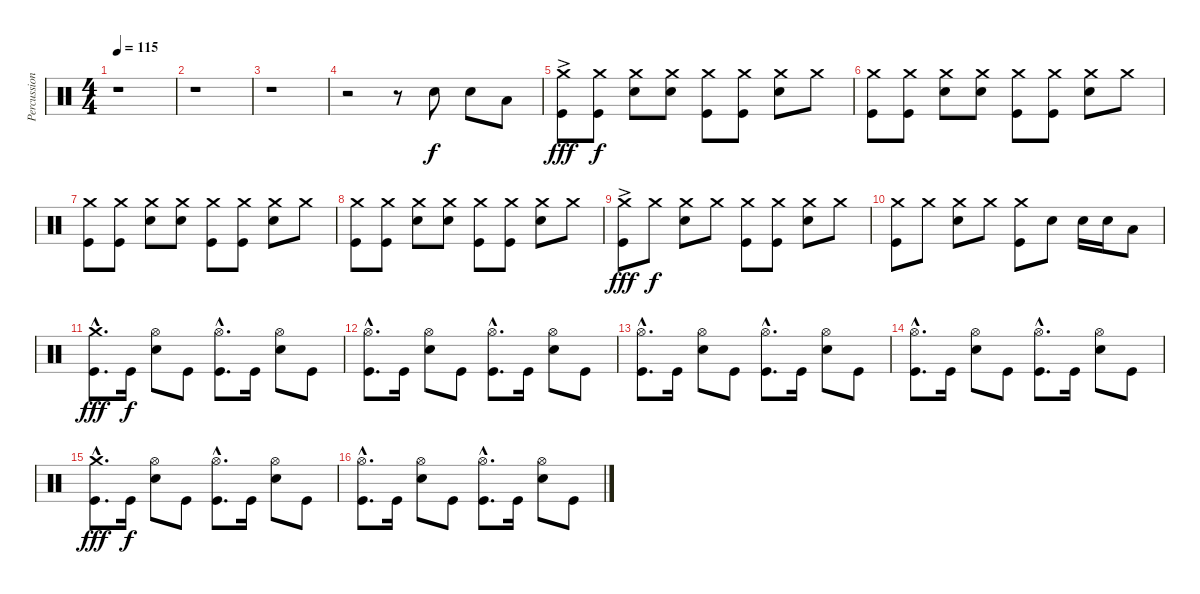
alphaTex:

\track ("Percussion" "Percussion") {instrument percussion}
\staff {score}
\articulation defaults
\ts (4 4)
\tempo 115
\clef neutral
\ks c
r.1{dy f} |
r.1 |
r.1 |
r.2 r.8 "Snare (hit) 2".8 "Snare (hit) 2".8 "Low Floor Tom (hit)".8 |
("Crash medium (hit)"{ac} "Kick (hit)").8{dy fff} ("Crash medium (hit)" "Kick (hit)").8{dy f} ("Crash medium (hit)" "Snare (hit) 2").8 ("Crash medium (hit)" "Snare (hit) 2").8 ("Crash medium (hit)" "Kick (hit)").8 ("Crash medium (hit)" "Kick (hit)").8 ("Crash medium (hit)" "Snare (hit) 2").8 "Crash medium (hit)".8 |
("Crash medium (hit)" "Kick (hit)").8 ("Crash medium (hit)" "Kick (hit)").8 ("Crash medium (hit)" "Snare (hit) 2").8 ("Crash medium (hit)" "Snare (hit) 2").8 ("Crash medium (hit)" "Kick (hit)").8 ("Crash medium (hit)" "Kick (hit)").8 ("Crash medium (hit)" "Snare (hit) 2").8 "Crash medium (hit)".8 |
("Crash medium (hit)" "Kick (hit)").8 ("Crash medium (hit)" "Kick (hit)").8 ("Crash medium (hit)" "Snare (hit) 2").8 ("Crash medium (hit)" "Snare (hit) 2").8 ("Crash medium (hit)" "Kick (hit)").8 ("Crash medium (hit)" "Kick (hit)").8 ("Crash medium (hit)" "Snare (hit) 2").8 "Crash medium (hit)".8 |
("Crash medium (hit)" "Kick (hit)").8 ("Crash medium (hit)" "Kick (hit)").8 ("Crash medium (hit)" "Snare (hit) 2").8 ("Crash medium (hit)" "Snare (hit) 2").8 ("Crash medium (hit)" "Kick (hit)").8 ("Crash medium (hit)" "Kick (hit)").8 ("Crash medium (hit)" "Snare (hit) 2").8 "Crash medium (hit)".8 |
("Crash medium (hit)"{ac} "Kick (hit)").8{dy fff} "Crash medium (hit)".8{dy f} ("Crash medium (hit)" "Snare (hit) 2").8 "Crash medium (hit)".8 ("Crash medium (hit)" "Kick (hit)").8 ("Crash medium (hit)" "Kick (hit)").8 ("Crash medium (hit)" "Snare (hit) 2").8 "Crash medium (hit)".8 |
("Crash medium (hit)" "Kick (hit)").8 "Crash medium (hit)".8 ("Crash medium (hit)" "Snare (hit) 2").8 "Crash medium (hit)".8 ("Crash medium (hit)" "Kick (hit)").8 "Snare (hit) 2".8 "Snare (hit) 2".16 "Snare (hit) 2".16 "Low Tom (hit)".8 |
("Crash medium (hit)"{hac} "Kick (hit)"{hac}).8{d dy fff} "Kick (hit)".16{dy f} ("Hi-Hat (open)" "Snare (hit) 2").8 "Kick (hit)".8 ("Hi-Hat (open)"{hac} "Kick (hit)"{hac}).8{d} "Kick (hit)".16 ("Hi-Hat (open)" "Snare (hit) 2").8 "Kick (hit)".8 |
("Hi-Hat (open)"{hac} "Kick (hit)"{hac}).8{d} "Kick (hit)".16 ("Hi-Hat (open)" "Snare (hit) 2").8 "Kick (hit)".8 ("Hi-Hat (open)"{hac} "Kick (hit)"{hac}).8{d} "Kick (hit)".16 ("Hi-Hat (open)" "Snare (hit) 2").8 "Kick (hit)".8 |
("Hi-Hat (open)"{hac} "Kick (hit)"{hac}).8{d} "Kick (hit)".16 ("Hi-Hat (open)" "Snare (hit) 2").8 "Kick (hit)".8 ("Hi-Hat (open)"{hac} "Kick (hit)"{hac}).8{d} "Kick (hit)".16 ("Hi-Hat (open)" "Snare (hit) 2").8 "Kick (hit)".8 |
("Hi-Hat (open)"{hac} "Kick (hit)"{hac}).8{d} "Kick (hit)".16 ("Hi-Hat (open)" "Snare (hit) 2").8 "Kick (hit)".8 ("Hi-Hat (open)"{hac} "Kick (hit)"{hac}).8{d} "Kick (hit)".16 ("Hi-Hat (open)" "Snare (hit) 2").8 "Kick (hit)".8 |
("Crash medium (hit)"{hac} "Kick (hit)"{hac}).8{d dy fff} "Kick (hit)".16{dy f} ("Hi-Hat (open)" "Snare (hit) 2").8 "Kick (hit)".8 ("Hi-Hat (open)"{hac} "Kick (hit)"{hac}).8{d} "Kick (hit)".16 ("Hi-Hat (open)" "Snare (hit) 2").8 "Kick (hit)".8 |
("Hi-Hat (open)"{hac} "Kick (hit)"{hac}).8{d} "Kick (hit)".16 ("Hi-Hat (open)" "Snare (hit) 2").8 "Kick (hit)".8 ("Hi-Hat (open)"{hac} "Kick (hit)"{hac}).8{d} "Kick (hit)".16 ("Hi-Hat (open)" "Snare (hit) 2").8 "Kick (hit)".8
